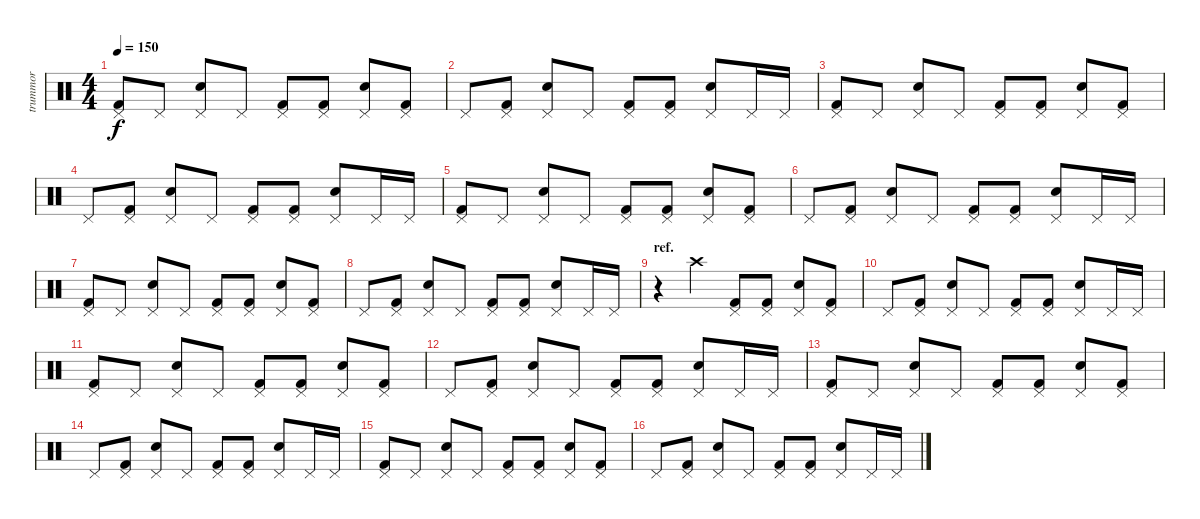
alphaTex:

\track ("trummor" "trummor") {instrument percussion}
\staff {score}
\articulation defaults
\ts (4 4)
\tempo 150
\clef neutral
\ks c
("Pedal Hi-Hat (hit)" "Kick (hit) 2").8{dy f} "Pedal Hi-Hat (hit)".8 ("Pedal Hi-Hat (hit)" "Snare (hit) 2").8 "Pedal Hi-Hat (hit)".8 ("Pedal Hi-Hat (hit)" "Kick (hit) 2").8 ("Pedal Hi-Hat (hit)" "Kick (hit) 2").8 ("Pedal Hi-Hat (hit)" "Snare (hit) 2").8 ("Pedal Hi-Hat (hit)" "Kick (hit) 2").8 |
"Pedal Hi-Hat (hit)".8 ("Pedal Hi-Hat (hit)" "Kick (hit) 2").8 ("Pedal Hi-Hat (hit)" "Snare (hit) 2").8 "Pedal Hi-Hat (hit)".8 ("Pedal Hi-Hat (hit)" "Kick (hit) 2").8 ("Pedal Hi-Hat (hit)" "Kick (hit) 2").8 ("Pedal Hi-Hat (hit)" "Snare (hit) 2").8 "Pedal Hi-Hat (hit)".16 "Pedal Hi-Hat (hit)".16 |
("Pedal Hi-Hat (hit)" "Kick (hit) 2").8 "Pedal Hi-Hat (hit)".8 ("Pedal Hi-Hat (hit)" "Snare (hit) 2").8 "Pedal Hi-Hat (hit)".8 ("Pedal Hi-Hat (hit)" "Kick (hit) 2").8 ("Pedal Hi-Hat (hit)" "Kick (hit) 2").8 ("Pedal Hi-Hat (hit)" "Snare (hit) 2").8 ("Pedal Hi-Hat (hit)" "Kick (hit) 2").8 |
"Pedal Hi-Hat (hit)".8 ("Pedal Hi-Hat (hit)" "Kick (hit) 2").8 ("Pedal Hi-Hat (hit)" "Snare (hit) 2").8 "Pedal Hi-Hat (hit)".8 ("Pedal Hi-Hat (hit)" "Kick (hit) 2").8 ("Pedal Hi-Hat (hit)" "Kick (hit) 2").8 ("Pedal Hi-Hat (hit)" "Snare (hit) 2").8 "Pedal Hi-Hat (hit)".16 "Pedal Hi-Hat (hit)".16 |
("Pedal Hi-Hat (hit)" "Kick (hit) 2").8 "Pedal Hi-Hat (hit)".8 ("Pedal Hi-Hat (hit)" "Snare (hit) 2").8 "Pedal Hi-Hat (hit)".8 ("Pedal Hi-Hat (hit)" "Kick (hit) 2").8 ("Pedal Hi-Hat (hit)" "Kick (hit) 2").8 ("Pedal Hi-Hat (hit)" "Snare (hit) 2").8 ("Pedal Hi-Hat (hit)" "Kick (hit) 2").8 |
"Pedal Hi-Hat (hit)".8 ("Pedal Hi-Hat (hit)" "Kick (hit) 2").8 ("Pedal Hi-Hat (hit)" "Snare (hit) 2").8 "Pedal Hi-Hat (hit)".8 ("Pedal Hi-Hat (hit)" "Kick (hit) 2").8 ("Pedal Hi-Hat (hit)" "Kick (hit) 2").8 ("Pedal Hi-Hat (hit)" "Snare (hit) 2").8 "Pedal Hi-Hat (hit)".16 "Pedal Hi-Hat (hit)".16 |
("Pedal Hi-Hat (hit)" "Kick (hit) 2").8 "Pedal Hi-Hat (hit)".8 ("Pedal Hi-Hat (hit)" "Snare (hit) 2").8 "Pedal Hi-Hat (hit)".8 ("Pedal Hi-Hat (hit)" "Kick (hit) 2").8 ("Pedal Hi-Hat (hit)" "Kick (hit) 2").8 ("Pedal Hi-Hat (hit)" "Snare (hit) 2").8 ("Pedal Hi-Hat (hit)" "Kick (hit) 2").8 |
"Pedal Hi-Hat (hit)".8 ("Pedal Hi-Hat (hit)" "Kick (hit) 2").8 ("Pedal Hi-Hat (hit)" "Snare (hit) 2").8 "Pedal Hi-Hat (hit)".8 ("Pedal Hi-Hat (hit)" "Kick (hit) 2").8 ("Pedal Hi-Hat (hit)" "Kick (hit) 2").8 ("Pedal Hi-Hat (hit)" "Snare (hit) 2").8 "Pedal Hi-Hat (hit)".16 "Pedal Hi-Hat (hit)".16 |
\section ("" "ref.")
r.4 "Crash high (hit)".4 ("Pedal Hi-Hat (hit)" "Kick (hit) 2").8 ("Pedal Hi-Hat (hit)" "Kick (hit) 2").8 ("Pedal Hi-Hat (hit)" "Snare (hit) 2").8 ("Pedal Hi-Hat (hit)" "Kick (hit) 2").8 |
"Pedal Hi-Hat (hit)".8 ("Pedal Hi-Hat (hit)" "Kick (hit) 2").8 ("Pedal Hi-Hat (hit)" "Snare (hit) 2").8 "Pedal Hi-Hat (hit)".8 ("Pedal Hi-Hat (hit)" "Kick (hit) 2").8 ("Pedal Hi-Hat (hit)" "Kick (hit) 2").8 ("Pedal Hi-Hat (hit)" "Snare (hit) 2").8 "Pedal Hi-Hat (hit)".16 "Pedal Hi-Hat (hit)".16 |
("Pedal Hi-Hat (hit)" "Kick (hit) 2").8 "Pedal Hi-Hat (hit)".8 ("Pedal Hi-Hat (hit)" "Snare (hit) 2").8 "Pedal Hi-Hat (hit)".8 ("Pedal Hi-Hat (hit)" "Kick (hit) 2").8 ("Pedal Hi-Hat (hit)" "Kick (hit) 2").8 ("Pedal Hi-Hat (hit)" "Snare (hit) 2").8 ("Pedal Hi-Hat (hit)" "Kick (hit) 2").8 |
"Pedal Hi-Hat (hit)".8 ("Pedal Hi-Hat (hit)" "Kick (hit) 2").8 ("Pedal Hi-Hat (hit)" "Snare (hit) 2").8 "Pedal Hi-Hat (hit)".8 ("Pedal Hi-Hat (hit)" "Kick (hit) 2").8 ("Pedal Hi-Hat (hit)" "Kick (hit) 2").8 ("Pedal Hi-Hat (hit)" "Snare (hit) 2").8 "Pedal Hi-Hat (hit)".16 "Pedal Hi-Hat (hit)".16 |
("Pedal Hi-Hat (hit)" "Kick (hit) 2").8 "Pedal Hi-Hat (hit)".8 ("Pedal Hi-Hat (hit)" "Snare (hit) 2").8 "Pedal Hi-Hat (hit)".8 ("Pedal Hi-Hat (hit)" "Kick (hit) 2").8 ("Pedal Hi-Hat (hit)" "Kick (hit) 2").8 ("Pedal Hi-Hat (hit)" "Snare (hit) 2").8 ("Pedal Hi-Hat (hit)" "Kick (hit) 2").8 |
"Pedal Hi-Hat (hit)".8 ("Pedal Hi-Hat (hit)" "Kick (hit) 2").8 ("Pedal Hi-Hat (hit)" "Snare (hit) 2").8 "Pedal Hi-Hat (hit)".8 ("Pedal Hi-Hat (hit)" "Kick (hit) 2").8 ("Pedal Hi-Hat (hit)" "Kick (hit) 2").8 ("Pedal Hi-Hat (hit)" "Snare (hit) 2").8 "Pedal Hi-Hat (hit)".16 "Pedal Hi-Hat (hit)".16 |
("Pedal Hi-Hat (hit)" "Kick (hit) 2").8 "Pedal Hi-Hat (hit)".8 ("Pedal Hi-Hat (hit)" "Snare (hit) 2").8 "Pedal Hi-Hat (hit)".8 ("Pedal Hi-Hat (hit)" "Kick (hit) 2").8 ("Pedal Hi-Hat (hit)" "Kick (hit) 2").8 ("Pedal Hi-Hat (hit)" "Snare (hit) 2").8 ("Pedal Hi-Hat (hit)" "Kick (hit) 2").8 |
"Pedal Hi-Hat (hit)".8 ("Pedal Hi-Hat (hit)" "Kick (hit) 2").8 ("Pedal Hi-Hat (hit)" "Snare (hit) 2").8 "Pedal Hi-Hat (hit)".8 ("Pedal Hi-Hat (hit)" "Kick (hit) 2").8 ("Pedal Hi-Hat (hit)" "Kick (hit) 2").8 ("Pedal Hi-Hat (hit)" "Snare (hit) 2").8 "Pedal Hi-Hat (hit)".16 "Pedal Hi-Hat (hit)".16
